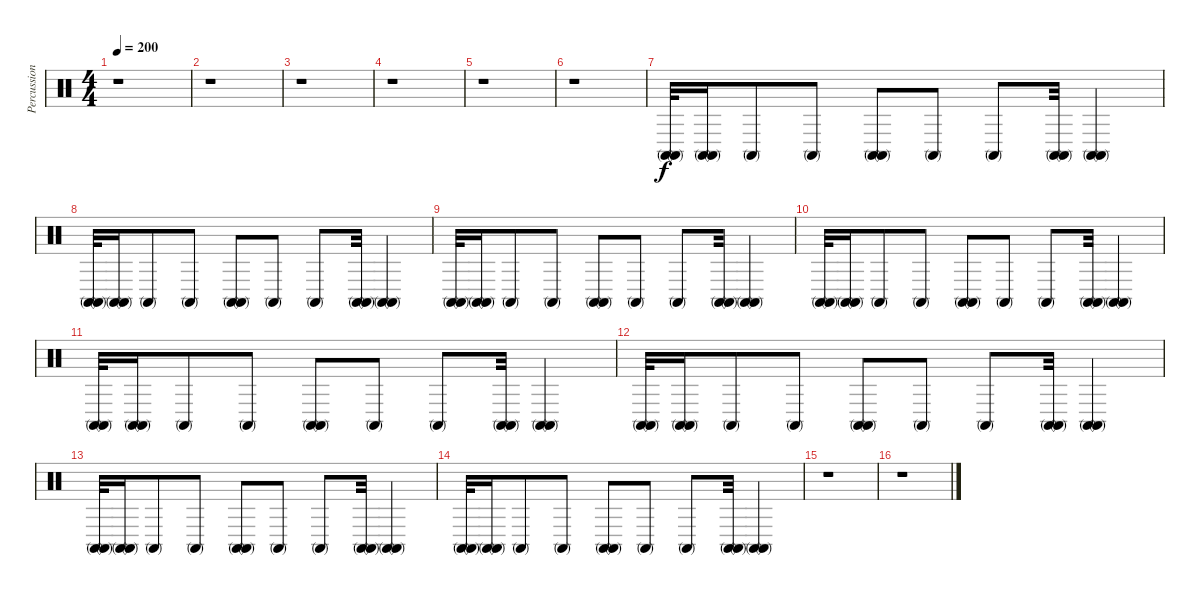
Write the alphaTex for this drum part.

\track ("Percussion 2" "Percussion") {instrument percussion}
\staff {score}
\articulation defaults
\ts (4 4)
\tempo 200
\clef neutral
\ks c
r.1{dy p} |
r.1 |
r.1 |
r.1 |
r.1 |
r.1 |
("Conga high (mute)" "Conga high (mute)").32{dy f} ("Conga high (mute)" "Conga high (mute)").16 "Conga high (mute)".8 "Conga high (mute)".8 ("Conga high (mute)" "Conga high (mute)").8 "Conga high (mute)".8 "Conga high (mute)".8 ("Conga high (mute)" "Conga high (mute)").32 ("Conga high (mute)" "Conga high (mute)").4 |
("Conga high (mute)" "Conga high (mute)").32 ("Conga high (mute)" "Conga high (mute)").16 "Conga high (mute)".8 "Conga high (mute)".8 ("Conga high (mute)" "Conga high (mute)").8 "Conga high (mute)".8 "Conga high (mute)".8 ("Conga high (mute)" "Conga high (mute)").32 ("Conga high (mute)" "Conga high (mute)").4 |
("Conga high (mute)" "Conga high (mute)").32 ("Conga high (mute)" "Conga high (mute)").16 "Conga high (mute)".8 "Conga high (mute)".8 ("Conga high (mute)" "Conga high (mute)").8 "Conga high (mute)".8 "Conga high (mute)".8 ("Conga high (mute)" "Conga high (mute)").32 ("Conga high (mute)" "Conga high (mute)").4 |
("Conga high (mute)" "Conga high (mute)").32 ("Conga high (mute)" "Conga high (mute)").16 "Conga high (mute)".8 "Conga high (mute)".8 ("Conga high (mute)" "Conga high (mute)").8 "Conga high (mute)".8 "Conga high (mute)".8 ("Conga high (mute)" "Conga high (mute)").32 ("Conga high (mute)" "Conga high (mute)").4 |
("Conga high (mute)" "Conga high (mute)").32 ("Conga high (mute)" "Conga high (mute)").16 "Conga high (mute)".8 "Conga high (mute)".8 ("Conga high (mute)" "Conga high (mute)").8 "Conga high (mute)".8 "Conga high (mute)".8 ("Conga high (mute)" "Conga high (mute)").32 ("Conga high (mute)" "Conga high (mute)").4 |
("Conga high (mute)" "Conga high (mute)").32 ("Conga high (mute)" "Conga high (mute)").16 "Conga high (mute)".8 "Conga high (mute)".8 ("Conga high (mute)" "Conga high (mute)").8 "Conga high (mute)".8 "Conga high (mute)".8 ("Conga high (mute)" "Conga high (mute)").32 ("Conga high (mute)" "Conga high (mute)").4 |
("Conga high (mute)" "Conga high (mute)").32 ("Conga high (mute)" "Conga high (mute)").16 "Conga high (mute)".8 "Conga high (mute)".8 ("Conga high (mute)" "Conga high (mute)").8 "Conga high (mute)".8 "Conga high (mute)".8 ("Conga high (mute)" "Conga high (mute)").32 ("Conga high (mute)" "Conga high (mute)").4 |
("Conga high (mute)" "Conga high (mute)").32 ("Conga high (mute)" "Conga high (mute)").16 "Conga high (mute)".8 "Conga high (mute)".8 ("Conga high (mute)" "Conga high (mute)").8 "Conga high (mute)".8 "Conga high (mute)".8 ("Conga high (mute)" "Conga high (mute)").32 ("Conga high (mute)" "Conga high (mute)").4 |
r.1 |
r.1
